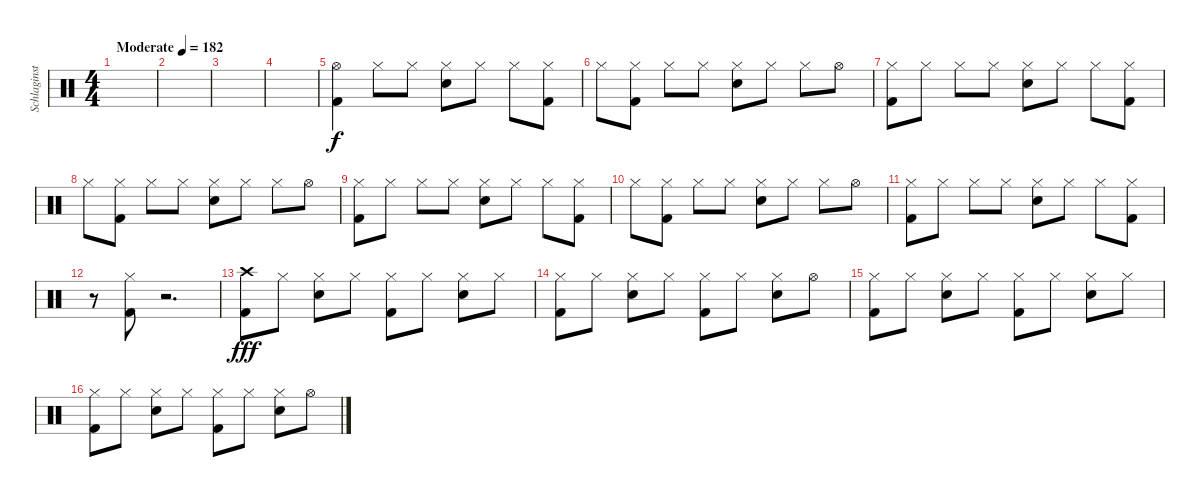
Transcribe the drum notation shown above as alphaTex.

\track ("Schlaginstrumente - Auswahl" "Schlaginst") {instrument percussion}
\staff {score}
\articulation defaults
\ts (4 4)
\tempo (182 "Moderate")
\clef neutral
\ks c
|
|
|
|
("Kick (hit) 2" "Hi-Hat (open)").4 "Hi-Hat (closed)".8 "Hi-Hat (closed)".8 ("Snare (hit) 2" "Hi-Hat (closed)").8 "Hi-Hat (closed)".8 "Hi-Hat (closed)".8 ("Kick (hit) 2" "Hi-Hat (closed)").8 |
"Hi-Hat (closed)".8 ("Kick (hit) 2" "Hi-Hat (closed)").8 "Hi-Hat (closed)".8 "Hi-Hat (closed)".8 ("Snare (hit) 2" "Hi-Hat (closed)").8 "Hi-Hat (closed)".8 "Hi-Hat (closed)".8 "Hi-Hat (open)".8 |
("Kick (hit) 2" "Hi-Hat (closed)").8 "Hi-Hat (closed)".8 "Hi-Hat (closed)".8 "Hi-Hat (closed)".8 ("Snare (hit) 2" "Hi-Hat (closed)").8 "Hi-Hat (closed)".8 "Hi-Hat (closed)".8 ("Kick (hit) 2" "Hi-Hat (closed)").8 |
"Hi-Hat (closed)".8 ("Kick (hit) 2" "Hi-Hat (closed)").8 "Hi-Hat (closed)".8 "Hi-Hat (closed)".8 ("Snare (hit) 2" "Hi-Hat (closed)").8 "Hi-Hat (closed)".8 "Hi-Hat (closed)".8 "Hi-Hat (open)".8 |
("Kick (hit) 2" "Hi-Hat (closed)").8 "Hi-Hat (closed)".8 "Hi-Hat (closed)".8 "Hi-Hat (closed)".8 ("Snare (hit) 2" "Hi-Hat (closed)").8 "Hi-Hat (closed)".8 "Hi-Hat (closed)".8 ("Kick (hit) 2" "Hi-Hat (closed)").8 |
"Hi-Hat (closed)".8 ("Kick (hit) 2" "Hi-Hat (closed)").8 "Hi-Hat (closed)".8 "Hi-Hat (closed)".8 ("Snare (hit) 2" "Hi-Hat (closed)").8 "Hi-Hat (closed)".8 "Hi-Hat (closed)".8 "Hi-Hat (open)".8 |
("Kick (hit) 2" "Hi-Hat (closed)").8 "Hi-Hat (closed)".8 "Hi-Hat (closed)".8 "Hi-Hat (closed)".8 ("Snare (hit) 2" "Hi-Hat (closed)").8 "Hi-Hat (closed)".8 "Hi-Hat (closed)".8 ("Kick (hit) 2" "Hi-Hat (closed)").8 |
r.8 ("Kick (hit) 2" "Hi-Hat (closed)").8 r.2{d} |
("Kick (hit) 2" "Crash high (hit)").8{dy fff} "Hi-Hat (closed)".8 ("Snare (hit) 2" "Hi-Hat (closed)").8 "Hi-Hat (closed)".8 ("Kick (hit) 2" "Hi-Hat (closed)").8 "Hi-Hat (closed)".8 ("Snare (hit) 2" "Hi-Hat (closed)").8 "Hi-Hat (closed)".8 |
("Kick (hit) 2" "Hi-Hat (closed)").8 "Hi-Hat (closed)".8 ("Snare (hit) 2" "Hi-Hat (closed)").8 "Hi-Hat (closed)".8 ("Kick (hit) 2" "Hi-Hat (closed)").8 "Hi-Hat (closed)".8 ("Snare (hit) 2" "Hi-Hat (closed)").8 "Hi-Hat (open)".8 |
("Kick (hit) 2" "Hi-Hat (closed)").8 "Hi-Hat (closed)".8 ("Snare (hit) 2" "Hi-Hat (closed)").8 "Hi-Hat (closed)".8 ("Kick (hit) 2" "Hi-Hat (closed)").8 "Hi-Hat (closed)".8 ("Snare (hit) 2" "Hi-Hat (closed)").8 "Hi-Hat (closed)".8 |
("Kick (hit) 2" "Hi-Hat (closed)").8 "Hi-Hat (closed)".8 ("Snare (hit) 2" "Hi-Hat (closed)").8 "Hi-Hat (closed)".8 ("Kick (hit) 2" "Hi-Hat (closed)").8 "Hi-Hat (closed)".8 ("Snare (hit) 2" "Hi-Hat (closed)").8 "Hi-Hat (open)".8
